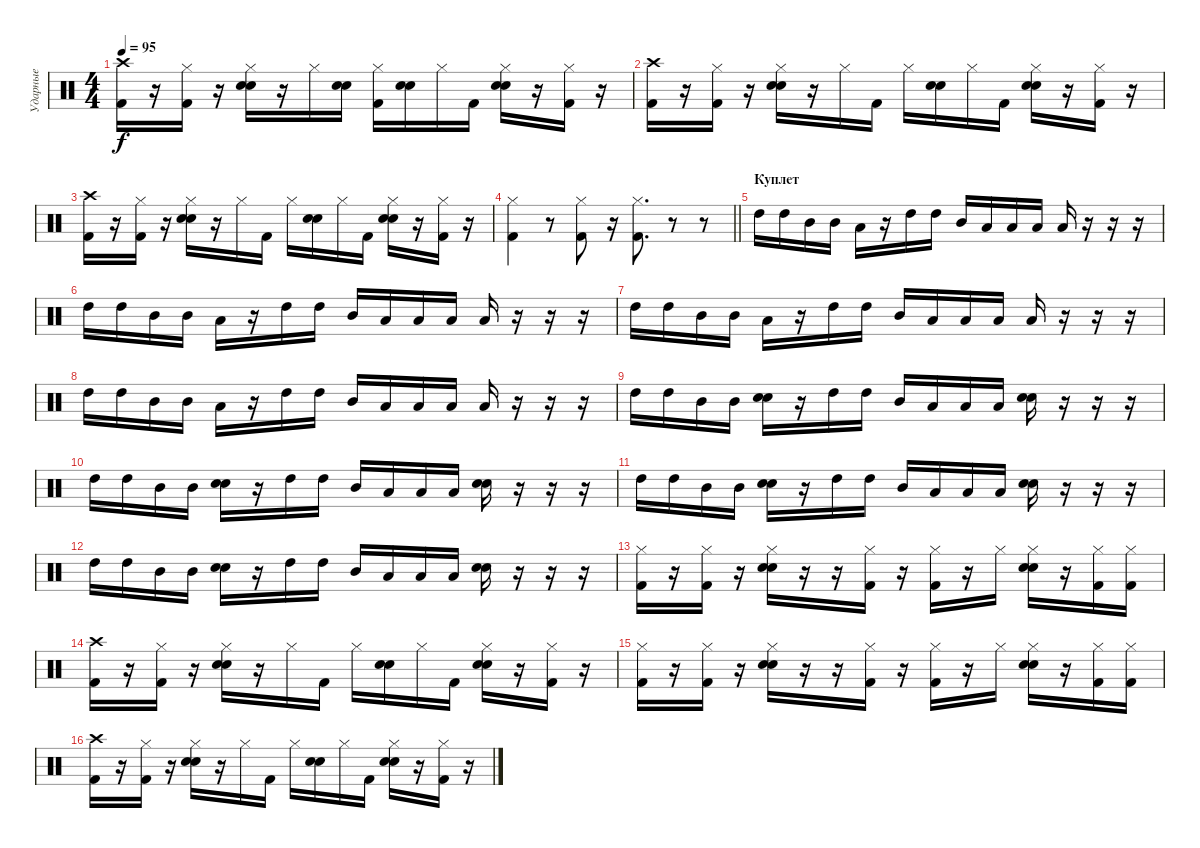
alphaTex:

\track ("Ударные" "Ударные") {instrument percussion}
\staff {score}
\articulation defaults
\ts (4 4)
\tempo 95
\clef neutral
\ks c
("Crash high (hit)" "Kick (hit) 2").16{dy f} r.16 ("Hi-Hat (closed)" "Kick (hit) 2").16 r.16 ("Hi-Hat (closed)" "Snare (hit) 2" "Electric Snare (hit)").16 r.16 "Hi-Hat (closed)".16 ("Snare (hit) 2" "Electric Snare (hit)").16 ("Hi-Hat (closed)" "Kick (hit) 2").16 ("Snare (hit) 2" "Electric Snare (hit)").16 "Hi-Hat (closed)".16 "Kick (hit) 2".16 ("Hi-Hat (closed)" "Snare (hit) 2" "Electric Snare (hit)").16 r.16 ("Hi-Hat (closed)" "Kick (hit) 2").16 r.16 |
("Crash high (hit)" "Kick (hit) 2").16 r.16 ("Hi-Hat (closed)" "Kick (hit) 2").16 r.16 ("Hi-Hat (closed)" "Snare (hit) 2" "Electric Snare (hit)").16 r.16 "Hi-Hat (closed)".16 "Kick (hit) 2".16 "Hi-Hat (closed)".16 ("Snare (hit) 2" "Electric Snare (hit)").16 "Hi-Hat (closed)".16 "Kick (hit) 2".16 ("Hi-Hat (closed)" "Snare (hit) 2" "Electric Snare (hit)").16 r.16 ("Hi-Hat (closed)" "Kick (hit) 2").16 r.16 |
("Crash high (hit)" "Kick (hit) 2").16 r.16 ("Hi-Hat (closed)" "Kick (hit) 2").16 r.16 ("Hi-Hat (closed)" "Snare (hit) 2" "Electric Snare (hit)").16 r.16 "Hi-Hat (closed)".16 "Kick (hit) 2".16 "Hi-Hat (closed)".16 ("Snare (hit) 2" "Electric Snare (hit)").16 "Hi-Hat (closed)".16 "Kick (hit) 2".16 ("Hi-Hat (closed)" "Snare (hit) 2" "Electric Snare (hit)").16 r.16 ("Hi-Hat (closed)" "Kick (hit) 2").16 r.16 |
\barLineRight lightlight
("Hi-Hat (closed)" "Kick (hit) 2").4 r.8 ("Hi-Hat (closed)" "Kick (hit) 2").8 r.16 ("Hi-Hat (closed)" "Kick (hit) 2").8{d} r.8 r.8 |
\section ("" "Куплет")
"High Tom (hit)".16 "High Tom (hit)".16 "Mid Tom (hit)".16 "Mid Tom (hit)".16 "Low Tom (hit)".16 r.16 "High Tom (hit)".16 "High Tom (hit)".16 "Mid Tom (hit)".16 "Low Tom (hit)".16 "Low Tom (hit)".16 "Low Tom (hit)".16 "Low Tom (hit)".16 r.16 r.16 r.16 |
"High Tom (hit)".16 "High Tom (hit)".16 "Mid Tom (hit)".16 "Mid Tom (hit)".16 "Low Tom (hit)".16 r.16 "High Tom (hit)".16 "High Tom (hit)".16 "Mid Tom (hit)".16 "Low Tom (hit)".16 "Low Tom (hit)".16 "Low Tom (hit)".16 "Low Tom (hit)".16 r.16 r.16 r.16 |
"High Tom (hit)".16 "High Tom (hit)".16 "Mid Tom (hit)".16 "Mid Tom (hit)".16 "Low Tom (hit)".16 r.16 "High Tom (hit)".16 "High Tom (hit)".16 "Mid Tom (hit)".16 "Low Tom (hit)".16 "Low Tom (hit)".16 "Low Tom (hit)".16 "Low Tom (hit)".16 r.16 r.16 r.16 |
"High Tom (hit)".16 "High Tom (hit)".16 "Mid Tom (hit)".16 "Mid Tom (hit)".16 "Low Tom (hit)".16 r.16 "High Tom (hit)".16 "High Tom (hit)".16 "Mid Tom (hit)".16 "Low Tom (hit)".16 "Low Tom (hit)".16 "Low Tom (hit)".16 "Low Tom (hit)".16 r.16 r.16 r.16 |
"High Tom (hit)".16 "High Tom (hit)".16 "Mid Tom (hit)".16 "Mid Tom (hit)".16 ("Snare (hit) 2" "Electric Snare (hit)").16 r.16 "High Tom (hit)".16 "High Tom (hit)".16 "Mid Tom (hit)".16 "Low Tom (hit)".16 "Low Tom (hit)".16 "Low Tom (hit)".16 ("Snare (hit) 2" "Electric Snare (hit)").16 r.16 r.16 r.16 |
"High Tom (hit)".16 "High Tom (hit)".16 "Mid Tom (hit)".16 "Mid Tom (hit)".16 ("Snare (hit) 2" "Electric Snare (hit)").16 r.16 "High Tom (hit)".16 "High Tom (hit)".16 "Mid Tom (hit)".16 "Low Tom (hit)".16 "Low Tom (hit)".16 "Low Tom (hit)".16 ("Snare (hit) 2" "Electric Snare (hit)").16 r.16 r.16 r.16 |
"High Tom (hit)".16 "High Tom (hit)".16 "Mid Tom (hit)".16 "Mid Tom (hit)".16 ("Snare (hit) 2" "Electric Snare (hit)").16 r.16 "High Tom (hit)".16 "High Tom (hit)".16 "Mid Tom (hit)".16 "Low Tom (hit)".16 "Low Tom (hit)".16 "Low Tom (hit)".16 ("Snare (hit) 2" "Electric Snare (hit)").16 r.16 r.16 r.16 |
"High Tom (hit)".16 "High Tom (hit)".16 "Mid Tom (hit)".16 "Mid Tom (hit)".16 ("Snare (hit) 2" "Electric Snare (hit)").16 r.16 "High Tom (hit)".16 "High Tom (hit)".16 "Mid Tom (hit)".16 "Low Tom (hit)".16 "Low Tom (hit)".16 "Low Tom (hit)".16 ("Snare (hit) 2" "Electric Snare (hit)").16 r.16 r.16 r.16 |
("Hi-Hat (closed)" "Kick (hit) 2").16 r.16 ("Hi-Hat (closed)" "Kick (hit) 2").16 r.16 ("Hi-Hat (closed)" "Snare (hit) 2" "Electric Snare (hit)").16 r.16 r.16 ("Hi-Hat (closed)" "Kick (hit) 2").16 r.16 ("Hi-Hat (closed)" "Kick (hit) 2").16 r.16 "Hi-Hat (closed)".16 ("Hi-Hat (closed)" "Snare (hit) 2" "Electric Snare (hit)").16 r.16 ("Hi-Hat (closed)" "Kick (hit) 2").16 ("Hi-Hat (closed)" "Kick (hit) 2").16 |
("Crash high (hit)" "Kick (hit) 2").16 r.16 ("Hi-Hat (closed)" "Kick (hit) 2").16 r.16 ("Hi-Hat (closed)" "Snare (hit) 2" "Electric Snare (hit)").16 r.16 "Hi-Hat (closed)".16 "Kick (hit) 2".16 "Hi-Hat (closed)".16 ("Snare (hit) 2" "Electric Snare (hit)").16 "Hi-Hat (closed)".16 "Kick (hit) 2".16 ("Hi-Hat (closed)" "Snare (hit) 2" "Electric Snare (hit)").16 r.16 ("Hi-Hat (closed)" "Kick (hit) 2").16 r.16 |
("Hi-Hat (closed)" "Kick (hit) 2").16 r.16 ("Hi-Hat (closed)" "Kick (hit) 2").16 r.16 ("Hi-Hat (closed)" "Snare (hit) 2" "Electric Snare (hit)").16 r.16 r.16 ("Hi-Hat (closed)" "Kick (hit) 2").16 r.16 ("Hi-Hat (closed)" "Kick (hit) 2").16 r.16 "Hi-Hat (closed)".16 ("Hi-Hat (closed)" "Snare (hit) 2" "Electric Snare (hit)").16 r.16 ("Hi-Hat (closed)" "Kick (hit) 2").16 ("Hi-Hat (closed)" "Kick (hit) 2").16 |
("Crash high (hit)" "Kick (hit) 2").16 r.16 ("Hi-Hat (closed)" "Kick (hit) 2").16 r.16 ("Hi-Hat (closed)" "Snare (hit) 2" "Electric Snare (hit)").16 r.16 "Hi-Hat (closed)".16 "Kick (hit) 2".16 "Hi-Hat (closed)".16 ("Snare (hit) 2" "Electric Snare (hit)").16 "Hi-Hat (closed)".16 "Kick (hit) 2".16 ("Hi-Hat (closed)" "Snare (hit) 2" "Electric Snare (hit)").16 r.16 ("Hi-Hat (closed)" "Kick (hit) 2").16 r.16
